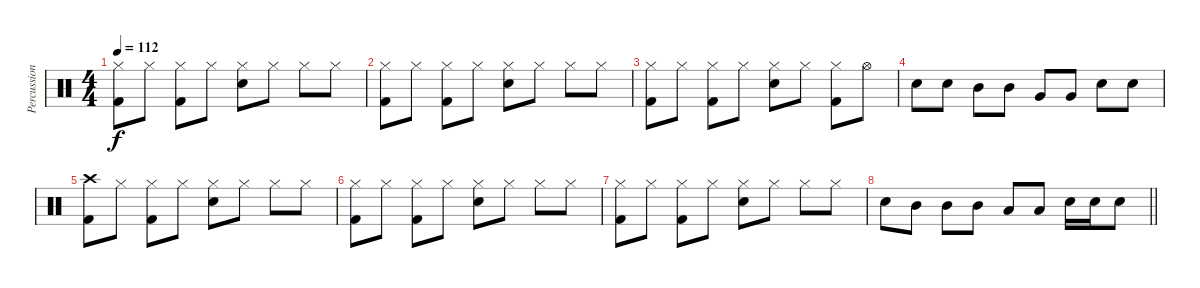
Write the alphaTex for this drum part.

\track ("Percussion" "Percussion") {instrument percussion}
\staff {score}
\articulation defaults
\ts (4 4)
\tempo 112
\clef neutral
\ks c
("Hi-Hat (closed)" "Kick (hit) 2").8{dy f} "Hi-Hat (closed)".8 ("Hi-Hat (closed)" "Kick (hit) 2").8 "Hi-Hat (closed)".8 ("Hi-Hat (closed)" "Snare (hit) 2").8 "Hi-Hat (closed)".8 "Hi-Hat (closed)".8 "Hi-Hat (closed)".8 |
("Hi-Hat (closed)" "Kick (hit) 2").8 "Hi-Hat (closed)".8 ("Hi-Hat (closed)" "Kick (hit) 2").8 "Hi-Hat (closed)".8 ("Hi-Hat (closed)" "Snare (hit) 2").8 "Hi-Hat (closed)".8 "Hi-Hat (closed)".8 "Hi-Hat (closed)".8 |
("Hi-Hat (closed)" "Kick (hit) 2").8 "Hi-Hat (closed)".8 ("Hi-Hat (closed)" "Kick (hit) 2").8 "Hi-Hat (closed)".8 ("Hi-Hat (closed)" "Snare (hit) 2").8 "Hi-Hat (closed)".8 ("Hi-Hat (closed)" "Kick (hit) 2").8 "Hi-Hat (open)".8 |
"Snare (hit) 2".8 "Snare (hit) 2".8 "Mid Tom (hit)".8 "Mid Tom (hit)".8 "Very Low Tom (hit)".8 "Very Low Tom (hit)".8 "Snare (hit) 2".8 "Snare (hit) 2".8 |
("Crash high (hit)" "Kick (hit) 2").8 "Hi-Hat (closed)".8 ("Hi-Hat (closed)" "Kick (hit) 2").8 "Hi-Hat (closed)".8 ("Hi-Hat (closed)" "Snare (hit) 2").8 "Hi-Hat (closed)".8 "Hi-Hat (closed)".8 "Hi-Hat (closed)".8 |
("Hi-Hat (closed)" "Kick (hit) 2").8 "Hi-Hat (closed)".8 ("Hi-Hat (closed)" "Kick (hit) 2").8 "Hi-Hat (closed)".8 ("Hi-Hat (closed)" "Snare (hit) 2").8 "Hi-Hat (closed)".8 "Hi-Hat (closed)".8 "Hi-Hat (closed)".8 |
("Hi-Hat (closed)" "Kick (hit) 2").8 "Hi-Hat (closed)".8 ("Hi-Hat (closed)" "Kick (hit) 2").8 "Hi-Hat (closed)".8 ("Hi-Hat (closed)" "Snare (hit) 2").8 "Hi-Hat (closed)".8 "Hi-Hat (closed)".8 "Hi-Hat (closed)".8 |
\barLineRight lightlight "Snare (hit) 2".8 "Mid Tom (hit)".8 "Mid Tom (hit)".8 "Mid Tom (hit)".8 "Low Tom (hit)".8 "Low Tom (hit)".8 "Snare (hit) 2".16 "Snare (hit) 2".16 "Snare (hit) 2".8
